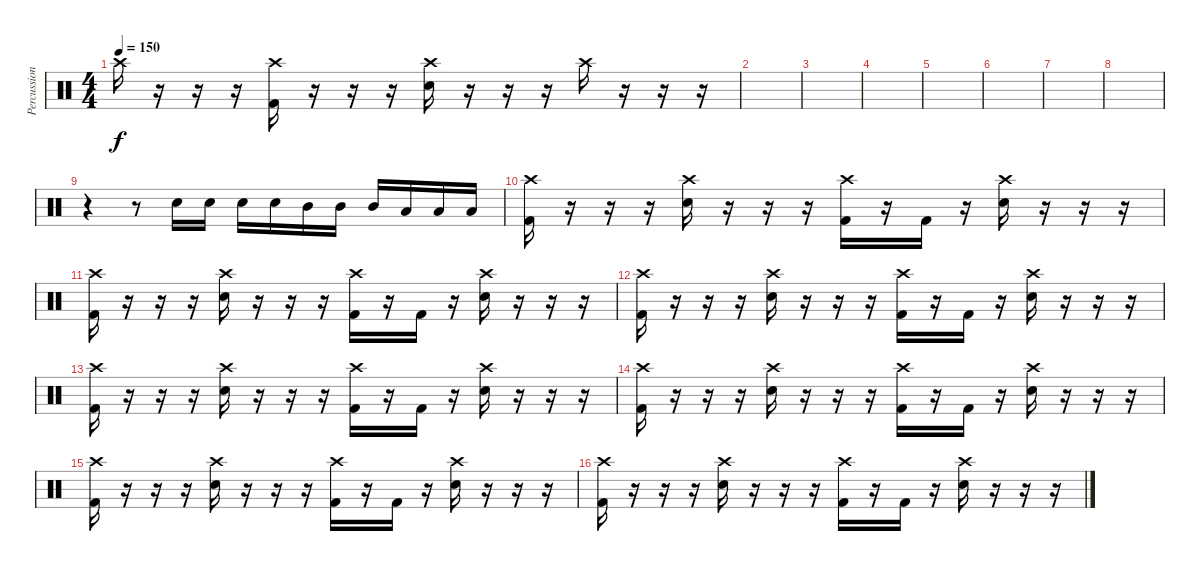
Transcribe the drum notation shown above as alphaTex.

\track ("Percussion" "Percussion") {instrument percussion}
\staff {score}
\articulation defaults
\ts (4 4)
\tempo 150
\clef neutral
\ks c "Crash high (hit)".16{dy f}
r.16 r.16 r.16 ("Crash high (hit)" "Kick (hit) 2").16 r.16 r.16 r.16 ("Crash high (hit)" "Electric Snare (hit)").16 r.16 r.16 r.16 "Crash high (hit)".16 r.16 r.16 r.16 |
|
|
|
|
|
|
|
r.4 r.8 "Electric Snare (hit)".16 "Electric Snare (hit)".16 "Electric Snare (hit)".16 "Electric Snare (hit)".16 "Mid Tom (hit)".16 "Mid Tom (hit)".16 "Mid Tom (hit)".16 "Low Tom (hit)".16 "Low Tom (hit)".16 "Low Tom (hit)".16 |
("Crash high (hit)" "Kick (hit) 2").16 r.16 r.16 r.16 ("Crash high (hit)" "Electric Snare (hit)").16 r.16 r.16 r.16 ("Crash high (hit)" "Kick (hit) 2").16 r.16 "Kick (hit) 2".16 r.16 ("Crash high (hit)" "Electric Snare (hit)").16 r.16 r.16 r.16 |
("Crash high (hit)" "Kick (hit) 2").16 r.16 r.16 r.16 ("Crash high (hit)" "Electric Snare (hit)").16 r.16 r.16 r.16 ("Crash high (hit)" "Kick (hit) 2").16 r.16 "Kick (hit) 2".16 r.16 ("Crash high (hit)" "Electric Snare (hit)").16 r.16 r.16 r.16 |
("Crash high (hit)" "Kick (hit) 2").16 r.16 r.16 r.16 ("Crash high (hit)" "Electric Snare (hit)").16 r.16 r.16 r.16 ("Crash high (hit)" "Kick (hit) 2").16 r.16 "Kick (hit) 2".16 r.16 ("Crash high (hit)" "Electric Snare (hit)").16 r.16 r.16 r.16 |
("Crash high (hit)" "Kick (hit) 2").16 r.16 r.16 r.16 ("Crash high (hit)" "Electric Snare (hit)").16 r.16 r.16 r.16 ("Crash high (hit)" "Kick (hit) 2").16 r.16 "Kick (hit) 2".16 r.16 ("Crash high (hit)" "Electric Snare (hit)").16 r.16 r.16 r.16 |
("Crash high (hit)" "Kick (hit) 2").16 r.16 r.16 r.16 ("Crash high (hit)" "Electric Snare (hit)").16 r.16 r.16 r.16 ("Crash high (hit)" "Kick (hit) 2").16 r.16 "Kick (hit) 2".16 r.16 ("Crash high (hit)" "Electric Snare (hit)").16 r.16 r.16 r.16 |
("Crash high (hit)" "Kick (hit) 2").16 r.16 r.16 r.16 ("Crash high (hit)" "Electric Snare (hit)").16 r.16 r.16 r.16 ("Crash high (hit)" "Kick (hit) 2").16 r.16 "Kick (hit) 2".16 r.16 ("Crash high (hit)" "Electric Snare (hit)").16 r.16 r.16 r.16 |
("Crash high (hit)" "Kick (hit) 2").16 r.16 r.16 r.16 ("Crash high (hit)" "Electric Snare (hit)").16 r.16 r.16 r.16 ("Crash high (hit)" "Kick (hit) 2").16 r.16 "Kick (hit) 2".16 r.16 ("Crash high (hit)" "Electric Snare (hit)").16 r.16 r.16 r.16
